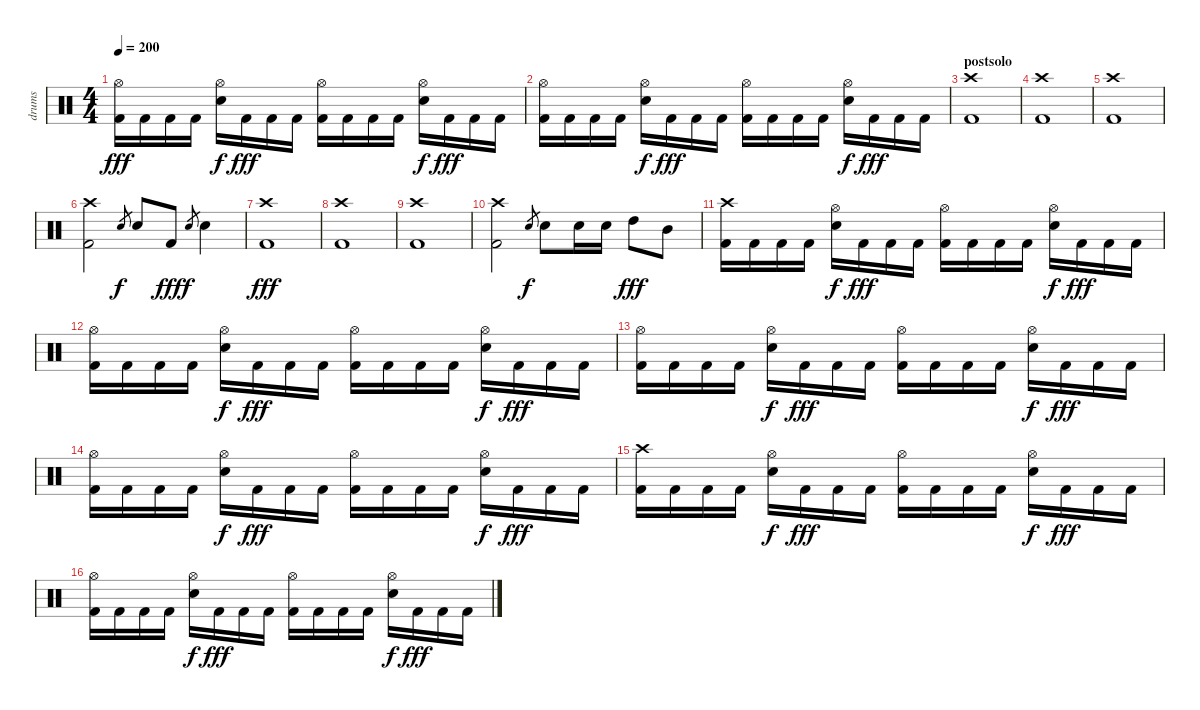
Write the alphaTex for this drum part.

\track ("drums" "drums") {instrument percussion}
\staff {score}
\articulation defaults
\ts (4 4)
\tempo 200
\clef neutral
\ks c
("Hi-Hat (open)" "Kick (hit) 2").16{dy fff} "Kick (hit) 2".16 "Kick (hit) 2".16 "Kick (hit) 2".16 ("Hi-Hat (open)" "Snare (hit) 2").16{dy f} "Kick (hit) 2".16{dy fff} "Kick (hit) 2".16 "Kick (hit) 2".16 ("Hi-Hat (open)" "Kick (hit) 2").16 "Kick (hit) 2".16 "Kick (hit) 2".16 "Kick (hit) 2".16 ("Hi-Hat (open)" "Snare (hit) 2").16{dy f} "Kick (hit) 2".16{dy fff} "Kick (hit) 2".16 "Kick (hit) 2".16 |
("Hi-Hat (open)" "Kick (hit) 2").16 "Kick (hit) 2".16 "Kick (hit) 2".16 "Kick (hit) 2".16 ("Hi-Hat (open)" "Snare (hit) 2").16{dy f} "Kick (hit) 2".16{dy fff} "Kick (hit) 2".16 "Kick (hit) 2".16 ("Hi-Hat (open)" "Kick (hit) 2").16 "Kick (hit) 2".16 "Kick (hit) 2".16 "Kick (hit) 2".16 ("Hi-Hat (open)" "Snare (hit) 2").16{dy f} "Kick (hit) 2".16{dy fff} "Kick (hit) 2".16 "Kick (hit) 2".16 |
\section ("" "postsolo")
("Crash high (hit)" "Kick (hit) 2").1 |
("Crash high (hit)" "Kick (hit) 2").1 |
("Crash high (hit)" "Kick (hit) 2").1 |
("Crash high (hit)" "Kick (hit) 2").2 "Snare (hit) 2".8{gr dy f} "Snare (hit) 2".8 "Kick (hit) 2".8{dy fff} "Snare (hit) 2".8{gr dy f} "Snare (hit) 2".4 |
("Crash high (hit)" "Kick (hit) 2").1{dy fff} |
("Crash high (hit)" "Kick (hit) 2").1 |
("Crash high (hit)" "Kick (hit) 2").1 |
("Crash high (hit)" "Kick (hit) 2").2 "Snare (hit) 2".8{gr dy f} "Snare (hit) 2".8 "Snare (hit) 2".16 "Snare (hit) 2".16 "High Tom (hit)".8{dy fff} "Mid Tom (hit)".8 |
("Crash high (hit)" "Kick (hit) 2").16 "Kick (hit) 2".16 "Kick (hit) 2".16 "Kick (hit) 2".16 ("Hi-Hat (open)" "Snare (hit) 2").16{dy f} "Kick (hit) 2".16{dy fff} "Kick (hit) 2".16 "Kick (hit) 2".16 ("Hi-Hat (open)" "Kick (hit) 2").16 "Kick (hit) 2".16 "Kick (hit) 2".16 "Kick (hit) 2".16 ("Hi-Hat (open)" "Snare (hit) 2").16{dy f} "Kick (hit) 2".16{dy fff} "Kick (hit) 2".16 "Kick (hit) 2".16 |
("Hi-Hat (open)" "Kick (hit) 2").16 "Kick (hit) 2".16 "Kick (hit) 2".16 "Kick (hit) 2".16 ("Hi-Hat (open)" "Snare (hit) 2").16{dy f} "Kick (hit) 2".16{dy fff} "Kick (hit) 2".16 "Kick (hit) 2".16 ("Hi-Hat (open)" "Kick (hit) 2").16 "Kick (hit) 2".16 "Kick (hit) 2".16 "Kick (hit) 2".16 ("Hi-Hat (open)" "Snare (hit) 2").16{dy f} "Kick (hit) 2".16{dy fff} "Kick (hit) 2".16 "Kick (hit) 2".16 |
("Hi-Hat (open)" "Kick (hit) 2").16 "Kick (hit) 2".16 "Kick (hit) 2".16 "Kick (hit) 2".16 ("Hi-Hat (open)" "Snare (hit) 2").16{dy f} "Kick (hit) 2".16{dy fff} "Kick (hit) 2".16 "Kick (hit) 2".16 ("Hi-Hat (open)" "Kick (hit) 2").16 "Kick (hit) 2".16 "Kick (hit) 2".16 "Kick (hit) 2".16 ("Hi-Hat (open)" "Snare (hit) 2").16{dy f} "Kick (hit) 2".16{dy fff} "Kick (hit) 2".16 "Kick (hit) 2".16 |
("Hi-Hat (open)" "Kick (hit) 2").16 "Kick (hit) 2".16 "Kick (hit) 2".16 "Kick (hit) 2".16 ("Hi-Hat (open)" "Snare (hit) 2").16{dy f} "Kick (hit) 2".16{dy fff} "Kick (hit) 2".16 "Kick (hit) 2".16 ("Hi-Hat (open)" "Kick (hit) 2").16 "Kick (hit) 2".16 "Kick (hit) 2".16 "Kick (hit) 2".16 ("Hi-Hat (open)" "Snare (hit) 2").16{dy f} "Kick (hit) 2".16{dy fff} "Kick (hit) 2".16 "Kick (hit) 2".16 |
("Crash high (hit)" "Kick (hit) 2").16 "Kick (hit) 2".16 "Kick (hit) 2".16 "Kick (hit) 2".16 ("Hi-Hat (open)" "Snare (hit) 2").16{dy f} "Kick (hit) 2".16{dy fff} "Kick (hit) 2".16 "Kick (hit) 2".16 ("Hi-Hat (open)" "Kick (hit) 2").16 "Kick (hit) 2".16 "Kick (hit) 2".16 "Kick (hit) 2".16 ("Hi-Hat (open)" "Snare (hit) 2").16{dy f} "Kick (hit) 2".16{dy fff} "Kick (hit) 2".16 "Kick (hit) 2".16 |
("Hi-Hat (open)" "Kick (hit) 2").16 "Kick (hit) 2".16 "Kick (hit) 2".16 "Kick (hit) 2".16 ("Hi-Hat (open)" "Snare (hit) 2").16{dy f} "Kick (hit) 2".16{dy fff} "Kick (hit) 2".16 "Kick (hit) 2".16 ("Hi-Hat (open)" "Kick (hit) 2").16 "Kick (hit) 2".16 "Kick (hit) 2".16 "Kick (hit) 2".16 ("Hi-Hat (open)" "Snare (hit) 2").16{dy f} "Kick (hit) 2".16{dy fff} "Kick (hit) 2".16 "Kick (hit) 2".16
